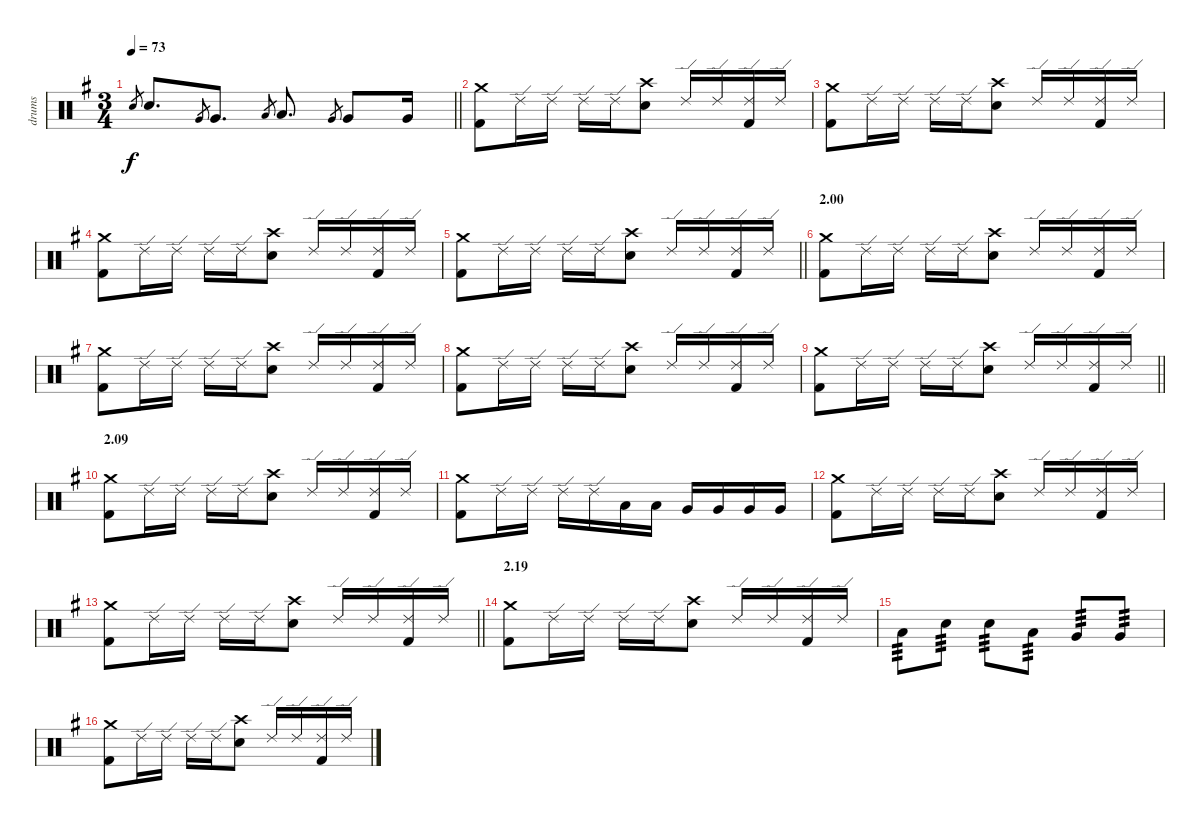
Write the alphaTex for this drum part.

\track ("drums" "drums") {instrument percussion}
\staff {score}
\articulation defaults
\ts (3 4)
\tempo 73
\clef neutral
\barLineRight lightlight
\ks g "Electric Snare (hit)".8{gr dy f} "Electric Snare (hit)".8{d} "Very Low Tom (hit)".8{gr} "Very Low Tom (hit)".8{d} "Low Tom (hit)".8{gr} "Low Tom (hit)".8{d} "Very Low Tom (hit)".8{gr} "Very Low Tom (hit)".8 "Very Low Tom (hit)".16
|
("Crash medium (hit)" "Kick (hit) 2").8 "Ride (edge) 2".16 "Ride (edge) 2".16 "Ride (edge) 2".16 "Ride (edge) 2".16 ("Crash high (hit)" "Electric Snare (hit)").8 "Ride (edge) 2".16 "Ride (edge) 2".16 ("Ride (edge) 2" "Kick (hit) 2").16 "Ride (edge) 2".16 |
("Crash medium (hit)" "Kick (hit) 2").8 "Ride (edge) 2".16 "Ride (edge) 2".16 "Ride (edge) 2".16 "Ride (edge) 2".16 ("Crash high (hit)" "Electric Snare (hit)").8 "Ride (edge) 2".16 "Ride (edge) 2".16 ("Ride (edge) 2" "Kick (hit) 2").16 "Ride (edge) 2".16 |
("Crash medium (hit)" "Kick (hit) 2").8 "Ride (edge) 2".16 "Ride (edge) 2".16 "Ride (edge) 2".16 "Ride (edge) 2".16 ("Crash high (hit)" "Electric Snare (hit)").8 "Ride (edge) 2".16 "Ride (edge) 2".16 ("Ride (edge) 2" "Kick (hit) 2").16 "Ride (edge) 2".16 |
\barLineRight lightlight
("Crash medium (hit)" "Kick (hit) 2").8 "Ride (edge) 2".16 "Ride (edge) 2".16 "Ride (edge) 2".16 "Ride (edge) 2".16 ("Crash high (hit)" "Electric Snare (hit)").8 "Ride (edge) 2".16 "Ride (edge) 2".16 ("Ride (edge) 2" "Kick (hit) 2").16 "Ride (edge) 2".16 |
\section ("" "2.00")
("Crash medium (hit)" "Kick (hit) 2").8 "Ride (edge) 2".16 "Ride (edge) 2".16 "Ride (edge) 2".16 "Ride (edge) 2".16 ("Crash high (hit)" "Electric Snare (hit)").8 "Ride (edge) 2".16 "Ride (edge) 2".16 ("Ride (edge) 2" "Kick (hit) 2").16 "Ride (edge) 2".16 |
("Crash medium (hit)" "Kick (hit) 2").8 "Ride (edge) 2".16 "Ride (edge) 2".16 "Ride (edge) 2".16 "Ride (edge) 2".16 ("Crash high (hit)" "Electric Snare (hit)").8 "Ride (edge) 2".16 "Ride (edge) 2".16 ("Ride (edge) 2" "Kick (hit) 2").16 "Ride (edge) 2".16 |
("Crash medium (hit)" "Kick (hit) 2").8 "Ride (edge) 2".16 "Ride (edge) 2".16 "Ride (edge) 2".16 "Ride (edge) 2".16 ("Crash high (hit)" "Electric Snare (hit)").8 "Ride (edge) 2".16 "Ride (edge) 2".16 ("Ride (edge) 2" "Kick (hit) 2").16 "Ride (edge) 2".16 |
\barLineRight lightlight
("Crash medium (hit)" "Kick (hit) 2").8 "Ride (edge) 2".16 "Ride (edge) 2".16 "Ride (edge) 2".16 "Ride (edge) 2".16 ("Crash high (hit)" "Electric Snare (hit)").8 "Ride (edge) 2".16 "Ride (edge) 2".16 ("Ride (edge) 2" "Kick (hit) 2").16 "Ride (edge) 2".16 |
\section ("" "2.09")
("Crash medium (hit)" "Kick (hit) 2").8 "Ride (edge) 2".16 "Ride (edge) 2".16 "Ride (edge) 2".16 "Ride (edge) 2".16 ("Crash high (hit)" "Electric Snare (hit)").8 "Ride (edge) 2".16 "Ride (edge) 2".16 ("Ride (edge) 2" "Kick (hit) 2").16 "Ride (edge) 2".16 |
("Crash medium (hit)" "Kick (hit) 2").8 "Ride (edge) 2".16 "Ride (edge) 2".16 "Ride (edge) 2".16 "Ride (edge) 2".16 "Low Tom (hit)".16 "Low Tom (hit)".16 "Very Low Tom (hit)".16 "Very Low Tom (hit)".16 "Very Low Tom (hit)".16 "Very Low Tom (hit)".16 |
("Crash medium (hit)" "Kick (hit) 2").8 "Ride (edge) 2".16 "Ride (edge) 2".16 "Ride (edge) 2".16 "Ride (edge) 2".16 ("Crash high (hit)" "Electric Snare (hit)").8 "Ride (edge) 2".16 "Ride (edge) 2".16 ("Ride (edge) 2" "Kick (hit) 2").16 "Ride (edge) 2".16 |
\barLineRight lightlight
("Crash medium (hit)" "Kick (hit) 2").8 "Ride (edge) 2".16 "Ride (edge) 2".16 "Ride (edge) 2".16 "Ride (edge) 2".16 ("Crash high (hit)" "Electric Snare (hit)").8 "Ride (edge) 2".16 "Ride (edge) 2".16 ("Ride (edge) 2" "Kick (hit) 2").16 "Ride (edge) 2".16 |
\section ("" "2.19")
("Crash medium (hit)" "Kick (hit) 2").8 "Ride (edge) 2".16 "Ride (edge) 2".16 "Ride (edge) 2".16 "Ride (edge) 2".16 ("Crash high (hit)" "Electric Snare (hit)").8 "Ride (edge) 2".16 "Ride (edge) 2".16 ("Ride (edge) 2" "Kick (hit) 2").16 "Ride (edge) 2".16 |
"Low Tom (hit)".8{tp 3} "Electric Snare (hit)".8{tp 3} "Electric Snare (hit)".8{tp 3} "Low Tom (hit)".8{tp 3} "Very Low Tom (hit)".8{tp 3} "Very Low Tom (hit)".8{tp 3} |
("Crash medium (hit)" "Kick (hit) 2").8 "Ride (edge) 2".16 "Ride (edge) 2".16 "Ride (edge) 2".16 "Ride (edge) 2".16 ("Crash high (hit)" "Electric Snare (hit)").8 "Ride (edge) 2".16 "Ride (edge) 2".16 ("Ride (edge) 2" "Kick (hit) 2").16 "Ride (edge) 2".16
